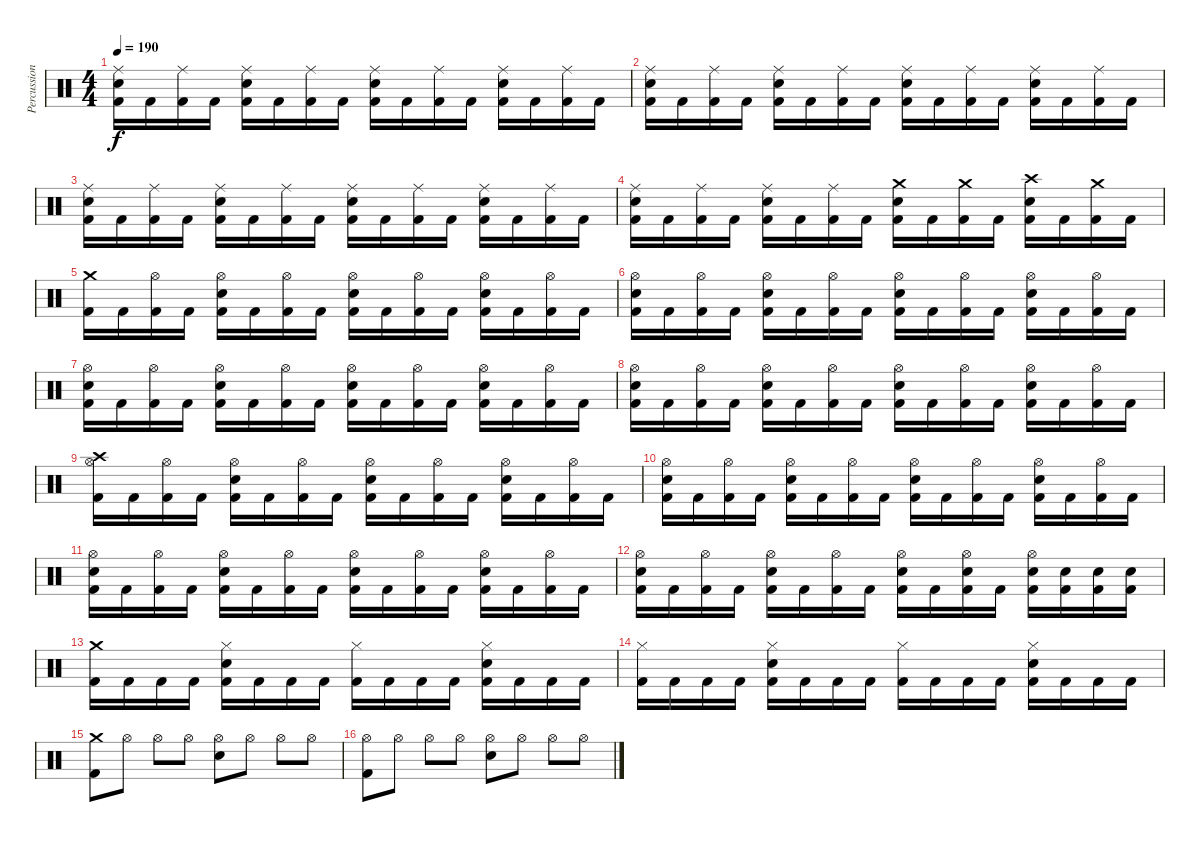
\track ("Percussions" "Percussion") {instrument percussion}
\staff {score}
\articulation defaults
\ts (4 4)
\tempo 190
\clef neutral
\ks c
("Ride (middle)" "Electric Snare (hit)" "Kick (hit) 2").16{dy f} "Kick (hit) 2".16 ("Ride (middle)" "Kick (hit) 2").16 "Kick (hit) 2".16 ("Ride (middle)" "Electric Snare (hit)" "Kick (hit) 2").16 "Kick (hit) 2".16 ("Ride (middle)" "Kick (hit) 2").16 "Kick (hit) 2".16 ("Ride (middle)" "Electric Snare (hit)" "Kick (hit) 2").16 "Kick (hit) 2".16 ("Ride (middle)" "Kick (hit) 2").16 "Kick (hit) 2".16 ("Ride (middle)" "Electric Snare (hit)" "Kick (hit) 2").16 "Kick (hit) 2".16 ("Ride (middle)" "Kick (hit) 2").16 "Kick (hit) 2".16 |
("Ride (middle)" "Electric Snare (hit)" "Kick (hit) 2").16 "Kick (hit) 2".16 ("Ride (middle)" "Kick (hit) 2").16 "Kick (hit) 2".16 ("Ride (middle)" "Electric Snare (hit)" "Kick (hit) 2").16 "Kick (hit) 2".16 ("Ride (middle)" "Kick (hit) 2").16 "Kick (hit) 2".16 ("Ride (middle)" "Electric Snare (hit)" "Kick (hit) 2").16 "Kick (hit) 2".16 ("Ride (middle)" "Kick (hit) 2").16 "Kick (hit) 2".16 ("Ride (middle)" "Electric Snare (hit)" "Kick (hit) 2").16 "Kick (hit) 2".16 ("Ride (middle)" "Kick (hit) 2").16 "Kick (hit) 2".16 |
("Ride (middle)" "Electric Snare (hit)" "Kick (hit) 2").16 "Kick (hit) 2".16 ("Ride (middle)" "Kick (hit) 2").16 "Kick (hit) 2".16 ("Ride (middle)" "Electric Snare (hit)" "Kick (hit) 2").16 "Kick (hit) 2".16 ("Ride (middle)" "Kick (hit) 2").16 "Kick (hit) 2".16 ("Ride (middle)" "Electric Snare (hit)" "Kick (hit) 2").16 "Kick (hit) 2".16 ("Ride (middle)" "Kick (hit) 2").16 "Kick (hit) 2".16 ("Ride (middle)" "Electric Snare (hit)" "Kick (hit) 2").16 "Kick (hit) 2".16 ("Ride (middle)" "Kick (hit) 2").16 "Kick (hit) 2".16 |
("Ride (middle)" "Electric Snare (hit)" "Kick (hit) 2").16 "Kick (hit) 2".16 ("Ride (middle)" "Kick (hit) 2").16 "Kick (hit) 2".16 ("Ride (middle)" "Electric Snare (hit)" "Kick (hit) 2").16 "Kick (hit) 2".16 ("Ride (middle)" "Kick (hit) 2").16 "Kick (hit) 2".16 ("Crash medium (hit)" "Electric Snare (hit)" "Kick (hit) 2").16 "Kick (hit) 2".16 ("Crash medium (hit)" "Kick (hit) 2").16 "Kick (hit) 2".16 ("Crash high (hit)" "Electric Snare (hit)" "Kick (hit) 2").16 "Kick (hit) 2".16 ("Crash medium (hit)" "Kick (hit) 2").16 "Kick (hit) 2".16 |
("Crash medium (hit)" "Kick (hit) 2").16 "Kick (hit) 2".16 ("Hi-Hat (open)" "Kick (hit) 2").16 "Kick (hit) 2".16 ("Hi-Hat (open)" "Electric Snare (hit)" "Kick (hit) 2").16 "Kick (hit) 2".16 ("Hi-Hat (open)" "Kick (hit) 2").16 "Kick (hit) 2".16 ("Hi-Hat (open)" "Electric Snare (hit)" "Kick (hit) 2").16 "Kick (hit) 2".16 ("Hi-Hat (open)" "Kick (hit) 2").16 "Kick (hit) 2".16 ("Hi-Hat (open)" "Electric Snare (hit)" "Kick (hit) 2").16 "Kick (hit) 2".16 ("Hi-Hat (open)" "Kick (hit) 2").16 "Kick (hit) 2".16 |
("Hi-Hat (open)" "Electric Snare (hit)" "Kick (hit) 2").16 "Kick (hit) 2".16 ("Hi-Hat (open)" "Kick (hit) 2").16 "Kick (hit) 2".16 ("Hi-Hat (open)" "Electric Snare (hit)" "Kick (hit) 2").16 "Kick (hit) 2".16 ("Hi-Hat (open)" "Kick (hit) 2").16 "Kick (hit) 2".16 ("Hi-Hat (open)" "Electric Snare (hit)" "Kick (hit) 2").16 "Kick (hit) 2".16 ("Hi-Hat (open)" "Kick (hit) 2").16 "Kick (hit) 2".16 ("Hi-Hat (open)" "Electric Snare (hit)" "Kick (hit) 2").16 "Kick (hit) 2".16 ("Hi-Hat (open)" "Kick (hit) 2").16 "Kick (hit) 2".16 |
("Hi-Hat (open)" "Electric Snare (hit)" "Kick (hit) 2").16 "Kick (hit) 2".16 ("Hi-Hat (open)" "Kick (hit) 2").16 "Kick (hit) 2".16 ("Hi-Hat (open)" "Electric Snare (hit)" "Kick (hit) 2").16 "Kick (hit) 2".16 ("Hi-Hat (open)" "Kick (hit) 2").16 "Kick (hit) 2".16 ("Hi-Hat (open)" "Electric Snare (hit)" "Kick (hit) 2").16 "Kick (hit) 2".16 ("Hi-Hat (open)" "Kick (hit) 2").16 "Kick (hit) 2".16 ("Hi-Hat (open)" "Electric Snare (hit)" "Kick (hit) 2").16 "Kick (hit) 2".16 ("Hi-Hat (open)" "Kick (hit) 2").16 "Kick (hit) 2".16 |
("Hi-Hat (open)" "Electric Snare (hit)" "Kick (hit) 2").16 "Kick (hit) 2".16 ("Hi-Hat (open)" "Kick (hit) 2").16 "Kick (hit) 2".16 ("Hi-Hat (open)" "Electric Snare (hit)" "Kick (hit) 2").16 "Kick (hit) 2".16 ("Hi-Hat (open)" "Kick (hit) 2").16 "Kick (hit) 2".16 ("Hi-Hat (open)" "Electric Snare (hit)" "Kick (hit) 2").16 "Kick (hit) 2".16 ("Hi-Hat (open)" "Kick (hit) 2").16 "Kick (hit) 2".16 ("Hi-Hat (open)" "Electric Snare (hit)" "Kick (hit) 2").16 "Kick (hit) 2".16 ("Hi-Hat (open)" "Kick (hit) 2").16 "Kick (hit) 2".16 |
("Hi-Hat (open)" "Crash high (hit)" "Kick (hit) 2").16 "Kick (hit) 2".16 ("Hi-Hat (open)" "Kick (hit) 2").16 "Kick (hit) 2".16 ("Hi-Hat (open)" "Electric Snare (hit)" "Kick (hit) 2").16 "Kick (hit) 2".16 ("Hi-Hat (open)" "Kick (hit) 2").16 "Kick (hit) 2".16 ("Hi-Hat (open)" "Electric Snare (hit)" "Kick (hit) 2").16 "Kick (hit) 2".16 ("Hi-Hat (open)" "Kick (hit) 2").16 "Kick (hit) 2".16 ("Hi-Hat (open)" "Electric Snare (hit)" "Kick (hit) 2").16 "Kick (hit) 2".16 ("Hi-Hat (open)" "Kick (hit) 2").16 "Kick (hit) 2".16 |
("Hi-Hat (open)" "Electric Snare (hit)" "Kick (hit) 2").16 "Kick (hit) 2".16 ("Hi-Hat (open)" "Kick (hit) 2").16 "Kick (hit) 2".16 ("Hi-Hat (open)" "Electric Snare (hit)" "Kick (hit) 2").16 "Kick (hit) 2".16 ("Hi-Hat (open)" "Kick (hit) 2").16 "Kick (hit) 2".16 ("Hi-Hat (open)" "Electric Snare (hit)" "Kick (hit) 2").16 "Kick (hit) 2".16 ("Hi-Hat (open)" "Kick (hit) 2").16 "Kick (hit) 2".16 ("Hi-Hat (open)" "Electric Snare (hit)" "Kick (hit) 2").16 "Kick (hit) 2".16 ("Hi-Hat (open)" "Kick (hit) 2").16 "Kick (hit) 2".16 |
("Hi-Hat (open)" "Electric Snare (hit)" "Kick (hit) 2").16 "Kick (hit) 2".16 ("Hi-Hat (open)" "Kick (hit) 2").16 "Kick (hit) 2".16 ("Hi-Hat (open)" "Electric Snare (hit)" "Kick (hit) 2").16 "Kick (hit) 2".16 ("Hi-Hat (open)" "Kick (hit) 2").16 "Kick (hit) 2".16 ("Hi-Hat (open)" "Electric Snare (hit)" "Kick (hit) 2").16 "Kick (hit) 2".16 ("Hi-Hat (open)" "Kick (hit) 2").16 "Kick (hit) 2".16 ("Hi-Hat (open)" "Electric Snare (hit)" "Kick (hit) 2").16 "Kick (hit) 2".16 ("Hi-Hat (open)" "Kick (hit) 2").16 "Kick (hit) 2".16 |
("Hi-Hat (open)" "Electric Snare (hit)" "Kick (hit) 2").16 "Kick (hit) 2".16 ("Hi-Hat (open)" "Kick (hit) 2").16 "Kick (hit) 2".16 ("Hi-Hat (open)" "Electric Snare (hit)" "Kick (hit) 2").16 "Kick (hit) 2".16 ("Hi-Hat (open)" "Kick (hit) 2").16 "Kick (hit) 2".16 ("Hi-Hat (open)" "Electric Snare (hit)" "Kick (hit) 2").16 "Kick (hit) 2".16 ("Hi-Hat (open)" "Electric Snare (hit)" "Kick (hit) 2").16 "Kick (hit) 2".16 ("Hi-Hat (open)" "Electric Snare (hit)" "Kick (hit) 2").16 ("Electric Snare (hit)" "Kick (hit) 2").16 ("Electric Snare (hit)" "Kick (hit) 2").16 ("Electric Snare (hit)" "Kick (hit) 2").16 |
("Crash medium (hit)" "Kick (hit) 2").16 "Kick (hit) 2".16 "Kick (hit) 2".16 "Kick (hit) 2".16 ("Hi-Hat (closed)" "Electric Snare (hit)" "Kick (hit) 2").16 "Kick (hit) 2".16 "Kick (hit) 2".16 "Kick (hit) 2".16 ("Hi-Hat (closed)" "Kick (hit) 2").16 "Kick (hit) 2".16 "Kick (hit) 2".16 "Kick (hit) 2".16 ("Hi-Hat (closed)" "Electric Snare (hit)" "Kick (hit) 2").16 "Kick (hit) 2".16 "Kick (hit) 2".16 "Kick (hit) 2".16 |
("Hi-Hat (closed)" "Kick (hit) 2").16 "Kick (hit) 2".16 "Kick (hit) 2".16 "Kick (hit) 2".16 ("Hi-Hat (closed)" "Electric Snare (hit)" "Kick (hit) 2").16 "Kick (hit) 2".16 "Kick (hit) 2".16 "Kick (hit) 2".16 ("Hi-Hat (closed)" "Kick (hit) 2").16 "Kick (hit) 2".16 "Kick (hit) 2".16 "Kick (hit) 2".16 ("Hi-Hat (closed)" "Electric Snare (hit)" "Kick (hit) 2").16 "Kick (hit) 2".16 "Kick (hit) 2".16 "Kick (hit) 2".16 |
("Crash medium (hit)" "Kick (hit) 2").8 "Hi-Hat (open)".8 "Hi-Hat (open)".8 "Hi-Hat (open)".8 ("Hi-Hat (open)" "Electric Snare (hit)").8 "Hi-Hat (open)".8 "Hi-Hat (open)".8 "Hi-Hat (open)".8 |
("Hi-Hat (open)" "Kick (hit) 2").8 "Hi-Hat (open)".8 "Hi-Hat (open)".8 "Hi-Hat (open)".8 ("Hi-Hat (open)" "Electric Snare (hit)").8 "Hi-Hat (open)".8 "Hi-Hat (open)".8 "Hi-Hat (open)".8
